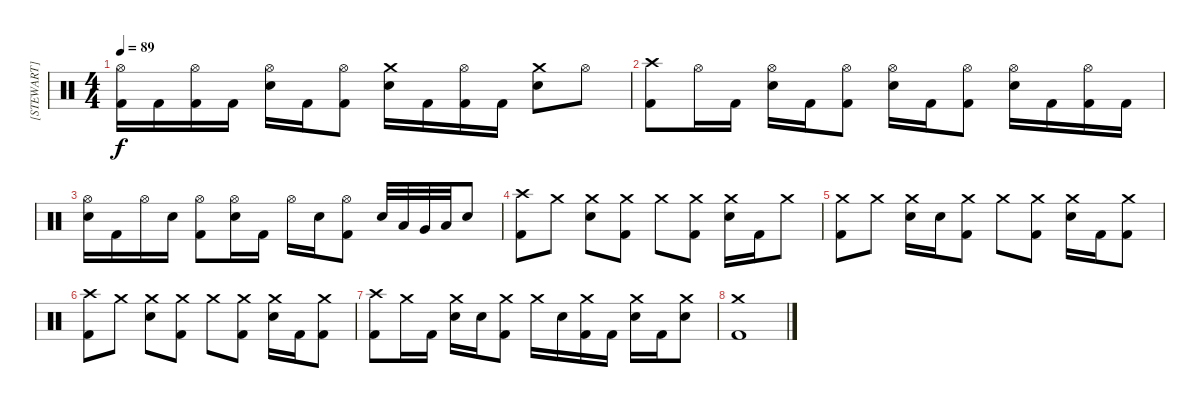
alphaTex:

\track ("[STEWART]" "[STEWART]") {instrument percussion}
\staff {score}
\articulation defaults
\ts (4 4)
\tempo 89
\clef neutral
\ks c
("Hi-Hat (open)" "Kick (hit) 2").16{dy f} "Kick (hit) 2".16 ("Hi-Hat (open)" "Kick (hit) 2").16 "Kick (hit) 2".16 ("Hi-Hat (open)" "Electric Snare (hit)").16 "Kick (hit) 2".16 ("Hi-Hat (open)" "Kick (hit) 2").8 ("Crash medium (hit)" "Electric Snare (hit)").16 "Kick (hit) 2".16 ("Hi-Hat (open)" "Kick (hit) 2").16 "Kick (hit) 2".16 ("Crash medium (hit)" "Electric Snare (hit)").8 "Hi-Hat (open)".8 |
("Crash high (hit)" "Kick (hit) 2").8 "Hi-Hat (open)".16 "Kick (hit) 2".16 ("Hi-Hat (open)" "Electric Snare (hit)").16 "Kick (hit) 2".16 ("Hi-Hat (open)" "Kick (hit) 2").8 ("Hi-Hat (open)" "Electric Snare (hit)").16 "Kick (hit) 2".16 ("Hi-Hat (open)" "Kick (hit) 2").8 ("Hi-Hat (open)" "Electric Snare (hit)").16 "Kick (hit) 2".16 ("Hi-Hat (open)" "Kick (hit) 2").16 "Kick (hit) 2".16 |
("Hi-Hat (open)" "Electric Snare (hit)").16 "Kick (hit) 2".16 "Hi-Hat (open)".16 "Electric Snare (hit)".16 ("Hi-Hat (open)" "Kick (hit) 2").8 ("Hi-Hat (open)" "Electric Snare (hit)").16 "Kick (hit) 2".16 "Hi-Hat (open)".16 "Electric Snare (hit)".16 ("Hi-Hat (open)" "Kick (hit) 2").8 "Electric Snare (hit)".32 "Low Tom (hit)".32 "Very Low Tom (hit)".32 "Low Floor Tom (hit)".32 "Electric Snare (hit)".8 |
("Crash high (hit)" "Kick (hit) 2").8 "Crash medium (hit)".8 ("Crash medium (hit)" "Electric Snare (hit)").8 ("Crash medium (hit)" "Kick (hit) 2").8 "Crash medium (hit)".8 ("Crash medium (hit)" "Kick (hit) 2").8 ("Crash medium (hit)" "Electric Snare (hit)").16 "Kick (hit) 2".16 "Crash medium (hit)".8 |
("Crash medium (hit)" "Kick (hit) 2").8 "Crash medium (hit)".8 ("Crash medium (hit)" "Electric Snare (hit)").16 "Electric Snare (hit)".16 ("Crash medium (hit)" "Kick (hit) 2").8 "Crash medium (hit)".8 ("Crash medium (hit)" "Kick (hit) 2").8 ("Crash medium (hit)" "Electric Snare (hit)").16 "Kick (hit) 2".16 ("Crash medium (hit)" "Kick (hit) 2").8 |
("Crash high (hit)" "Kick (hit) 2").8 "Crash medium (hit)".8 ("Crash medium (hit)" "Electric Snare (hit)").8 ("Crash medium (hit)" "Kick (hit) 2").8 "Crash medium (hit)".8 ("Crash medium (hit)" "Kick (hit) 2").8 ("Crash medium (hit)" "Electric Snare (hit)").16 "Kick (hit) 2".16 ("Crash medium (hit)" "Kick (hit) 2").8 |
("Crash high (hit)" "Kick (hit) 2").8 "Crash medium (hit)".16 "Kick (hit) 2".16 ("Crash medium (hit)" "Electric Snare (hit)").16 "Electric Snare (hit)".16 ("Crash medium (hit)" "Kick (hit) 2").8 "Crash medium (hit)".16 "Electric Snare (hit)".16 ("Crash medium (hit)" "Kick (hit) 2").16 "Kick (hit) 2".16 ("Crash medium (hit)" "Electric Snare (hit)").16 "Kick (hit) 2".16 ("Crash medium (hit)" "Electric Snare (hit)").8 |
("Crash medium (hit)" "Kick (hit) 2").1
